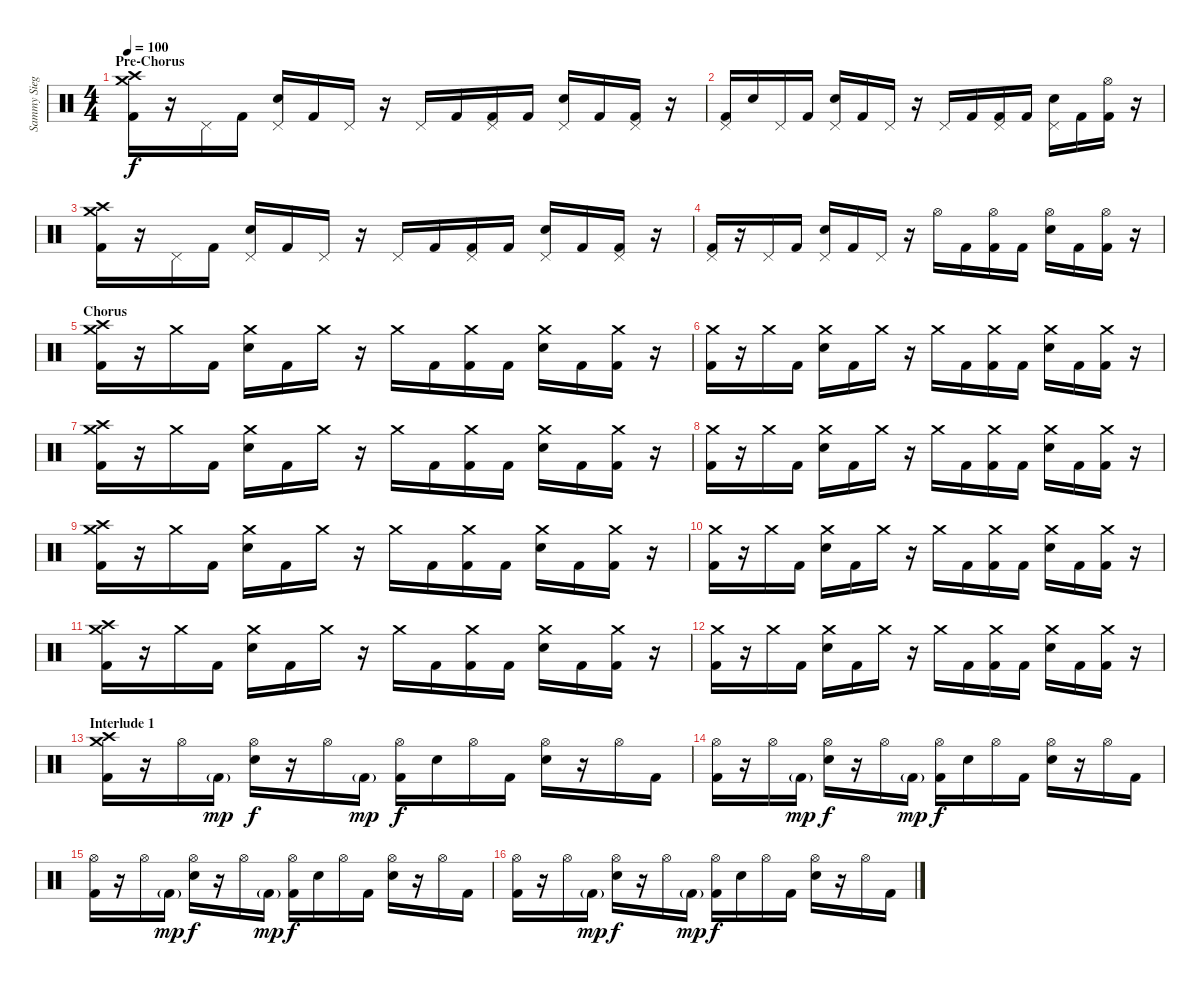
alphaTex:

\track ("Sammy Siegler" "Sammy Sieg") {instrument percussion}
\staff {score}
\articulation defaults
\ts (4 4)
\section ("" "Pre-Chorus")
\tempo 100
\clef neutral
\ks c
("Crash medium (hit)" "Crash high (hit)" "Kick (hit) 2").16{dy f} r.16 "Pedal Hi-Hat (hit)".16 "Kick (hit) 2".16 ("Pedal Hi-Hat (hit)" "Electric Snare (hit)").16 "Kick (hit) 2".16 "Pedal Hi-Hat (hit)".16 r.16 "Pedal Hi-Hat (hit)".16 "Kick (hit) 2".16 ("Pedal Hi-Hat (hit)" "Kick (hit) 2").16 "Kick (hit) 2".16 ("Pedal Hi-Hat (hit)" "Electric Snare (hit)").16 "Kick (hit) 2".16 ("Pedal Hi-Hat (hit)" "Kick (hit) 2").16 r.16 |
("Pedal Hi-Hat (hit)" "Kick (hit) 2").16 "Snare (hit)".16 "Pedal Hi-Hat (hit)".16 "Kick (hit) 2".16 ("Pedal Hi-Hat (hit)" "Electric Snare (hit)").16 "Kick (hit) 2".16 "Pedal Hi-Hat (hit)".16 r.16 "Pedal Hi-Hat (hit)".16 "Kick (hit) 2".16 ("Pedal Hi-Hat (hit)" "Kick (hit) 2").16 "Kick (hit) 2".16 ("Pedal Hi-Hat (hit)" "Electric Snare (hit)").16 "Kick (hit) 2".16 ("Hi-Hat (open)" "Kick (hit) 2").16 r.16 |
("Crash medium (hit)" "Crash high (hit)" "Kick (hit) 2").16 r.16 "Pedal Hi-Hat (hit)".16 "Kick (hit) 2".16 ("Pedal Hi-Hat (hit)" "Electric Snare (hit)").16 "Kick (hit) 2".16 "Pedal Hi-Hat (hit)".16 r.16 "Pedal Hi-Hat (hit)".16 "Kick (hit) 2".16 ("Pedal Hi-Hat (hit)" "Kick (hit) 2").16 "Kick (hit) 2".16 ("Pedal Hi-Hat (hit)" "Electric Snare (hit)").16 "Kick (hit) 2".16 ("Pedal Hi-Hat (hit)" "Kick (hit) 2").16 r.16 |
("Pedal Hi-Hat (hit)" "Kick (hit) 2").16 r.16 "Pedal Hi-Hat (hit)".16 "Kick (hit) 2".16 ("Pedal Hi-Hat (hit)" "Electric Snare (hit)").16 "Kick (hit) 2".16 "Pedal Hi-Hat (hit)".16 r.16 "Hi-Hat (open)".16 "Kick (hit) 2".16 ("Hi-Hat (open)" "Kick (hit) 2").16 "Kick (hit) 2".16 ("Hi-Hat (open)" "Electric Snare (hit)").16 "Kick (hit) 2".16 ("Hi-Hat (open)" "Kick (hit) 2").16 r.16 |
\section ("" "Chorus")
("Crash medium (hit)" "Crash high (hit)" "Kick (hit) 2").16 r.16 "Crash medium (hit)".16 "Kick (hit) 2".16 ("Crash medium (hit)" "Electric Snare (hit)").16 "Kick (hit) 2".16 "Crash medium (hit)".16 r.16 "Crash medium (hit)".16 "Kick (hit) 2".16 ("Crash medium (hit)" "Kick (hit) 2").16 "Kick (hit) 2".16 ("Crash medium (hit)" "Electric Snare (hit)").16 "Kick (hit) 2".16 ("Crash medium (hit)" "Kick (hit) 2").16 r.16 |
("Crash medium (hit)" "Kick (hit) 2").16 r.16 "Crash medium (hit)".16 "Kick (hit) 2".16 ("Crash medium (hit)" "Electric Snare (hit)").16 "Kick (hit) 2".16 "Crash medium (hit)".16 r.16 "Crash medium (hit)".16 "Kick (hit) 2".16 ("Crash medium (hit)" "Kick (hit) 2").16 "Kick (hit) 2".16 ("Crash medium (hit)" "Electric Snare (hit)").16 "Kick (hit) 2".16 ("Crash medium (hit)" "Kick (hit) 2").16 r.16 |
("Crash medium (hit)" "Crash high (hit)" "Kick (hit) 2").16 r.16 "Crash medium (hit)".16 "Kick (hit) 2".16 ("Crash medium (hit)" "Electric Snare (hit)").16 "Kick (hit) 2".16 "Crash medium (hit)".16 r.16 "Crash medium (hit)".16 "Kick (hit) 2".16 ("Crash medium (hit)" "Kick (hit) 2").16 "Kick (hit) 2".16 ("Crash medium (hit)" "Electric Snare (hit)").16 "Kick (hit) 2".16 ("Crash medium (hit)" "Kick (hit) 2").16 r.16 |
("Crash medium (hit)" "Kick (hit) 2").16 r.16 "Crash medium (hit)".16 "Kick (hit) 2".16 ("Crash medium (hit)" "Electric Snare (hit)").16 "Kick (hit) 2".16 "Crash medium (hit)".16 r.16 "Crash medium (hit)".16 "Kick (hit) 2".16 ("Crash medium (hit)" "Kick (hit) 2").16 "Kick (hit) 2".16 ("Crash medium (hit)" "Electric Snare (hit)").16 "Kick (hit) 2".16 ("Crash medium (hit)" "Kick (hit) 2").16 r.16 |
("Crash medium (hit)" "Crash high (hit)" "Kick (hit) 2").16 r.16 "Crash medium (hit)".16 "Kick (hit) 2".16 ("Crash medium (hit)" "Electric Snare (hit)").16 "Kick (hit) 2".16 "Crash medium (hit)".16 r.16 "Crash medium (hit)".16 "Kick (hit) 2".16 ("Crash medium (hit)" "Kick (hit) 2").16 "Kick (hit) 2".16 ("Crash medium (hit)" "Electric Snare (hit)").16 "Kick (hit) 2".16 ("Crash medium (hit)" "Kick (hit) 2").16 r.16 |
("Crash medium (hit)" "Kick (hit) 2").16 r.16 "Crash medium (hit)".16 "Kick (hit) 2".16 ("Crash medium (hit)" "Electric Snare (hit)").16 "Kick (hit) 2".16 "Crash medium (hit)".16 r.16 "Crash medium (hit)".16 "Kick (hit) 2".16 ("Crash medium (hit)" "Kick (hit) 2").16 "Kick (hit) 2".16 ("Crash medium (hit)" "Electric Snare (hit)").16 "Kick (hit) 2".16 ("Crash medium (hit)" "Kick (hit) 2").16 r.16 |
("Crash medium (hit)" "Crash high (hit)" "Kick (hit) 2").16 r.16 "Crash medium (hit)".16 "Kick (hit) 2".16 ("Crash medium (hit)" "Electric Snare (hit)").16 "Kick (hit) 2".16 "Crash medium (hit)".16 r.16 "Crash medium (hit)".16 "Kick (hit) 2".16 ("Crash medium (hit)" "Kick (hit) 2").16 "Kick (hit) 2".16 ("Crash medium (hit)" "Electric Snare (hit)").16 "Kick (hit) 2".16 ("Crash medium (hit)" "Kick (hit) 2").16 r.16 |
("Crash medium (hit)" "Kick (hit) 2").16 r.16 "Crash medium (hit)".16 "Kick (hit) 2".16 ("Crash medium (hit)" "Electric Snare (hit)").16 "Kick (hit) 2".16 "Crash medium (hit)".16 r.16 "Crash medium (hit)".16 "Kick (hit) 2".16 ("Crash medium (hit)" "Kick (hit) 2").16 "Kick (hit) 2".16 ("Crash medium (hit)" "Electric Snare (hit)").16 "Kick (hit) 2".16 ("Crash medium (hit)" "Kick (hit) 2").16 r.16 |
\section ("" "Interlude 1")
("Crash medium (hit)" "Crash high (hit)" "Kick (hit) 2").16 r.16 "Hi-Hat (open)".16 "Kick (hit) 2"{g}.16{dy mp} ("Hi-Hat (open)" "Electric Snare (hit)").16{dy f} r.16 "Hi-Hat (open)".16 "Kick (hit) 2"{g}.16{dy mp} ("Hi-Hat (open)" "Kick (hit) 2").16{dy f} "Electric Snare (hit)".16 "Hi-Hat (open)".16 "Kick (hit) 2".16 ("Hi-Hat (open)" "Electric Snare (hit)").16 r.16 "Hi-Hat (open)".16 "Kick (hit) 2".16 |
("Hi-Hat (open)" "Kick (hit) 2").16 r.16 "Hi-Hat (open)".16 "Kick (hit) 2"{g}.16{dy mp} ("Hi-Hat (open)" "Electric Snare (hit)").16{dy f} r.16 "Hi-Hat (open)".16 "Kick (hit) 2"{g}.16{dy mp} ("Hi-Hat (open)" "Kick (hit) 2").16{dy f} "Electric Snare (hit)".16 "Hi-Hat (open)".16 "Kick (hit) 2".16 ("Hi-Hat (open)" "Electric Snare (hit)").16 r.16 "Hi-Hat (open)".16 "Kick (hit) 2".16 |
("Hi-Hat (open)" "Kick (hit) 2").16 r.16 "Hi-Hat (open)".16 "Kick (hit) 2"{g}.16{dy mp} ("Hi-Hat (open)" "Electric Snare (hit)").16{dy f} r.16 "Hi-Hat (open)".16 "Kick (hit) 2"{g}.16{dy mp} ("Hi-Hat (open)" "Kick (hit) 2").16{dy f} "Electric Snare (hit)".16 "Hi-Hat (open)".16 "Kick (hit) 2".16 ("Hi-Hat (open)" "Electric Snare (hit)").16 r.16 "Hi-Hat (open)".16 "Kick (hit) 2".16 |
("Hi-Hat (open)" "Kick (hit) 2").16 r.16 "Hi-Hat (open)".16 "Kick (hit) 2"{g}.16{dy mp} ("Hi-Hat (open)" "Electric Snare (hit)").16{dy f} r.16 "Hi-Hat (open)".16 "Kick (hit) 2"{g}.16{dy mp} ("Hi-Hat (open)" "Kick (hit) 2").16{dy f} "Electric Snare (hit)".16 "Hi-Hat (open)".16 "Kick (hit) 2".16 ("Hi-Hat (open)" "Electric Snare (hit)").16 r.16 "Hi-Hat (open)".16 "Kick (hit) 2".16
